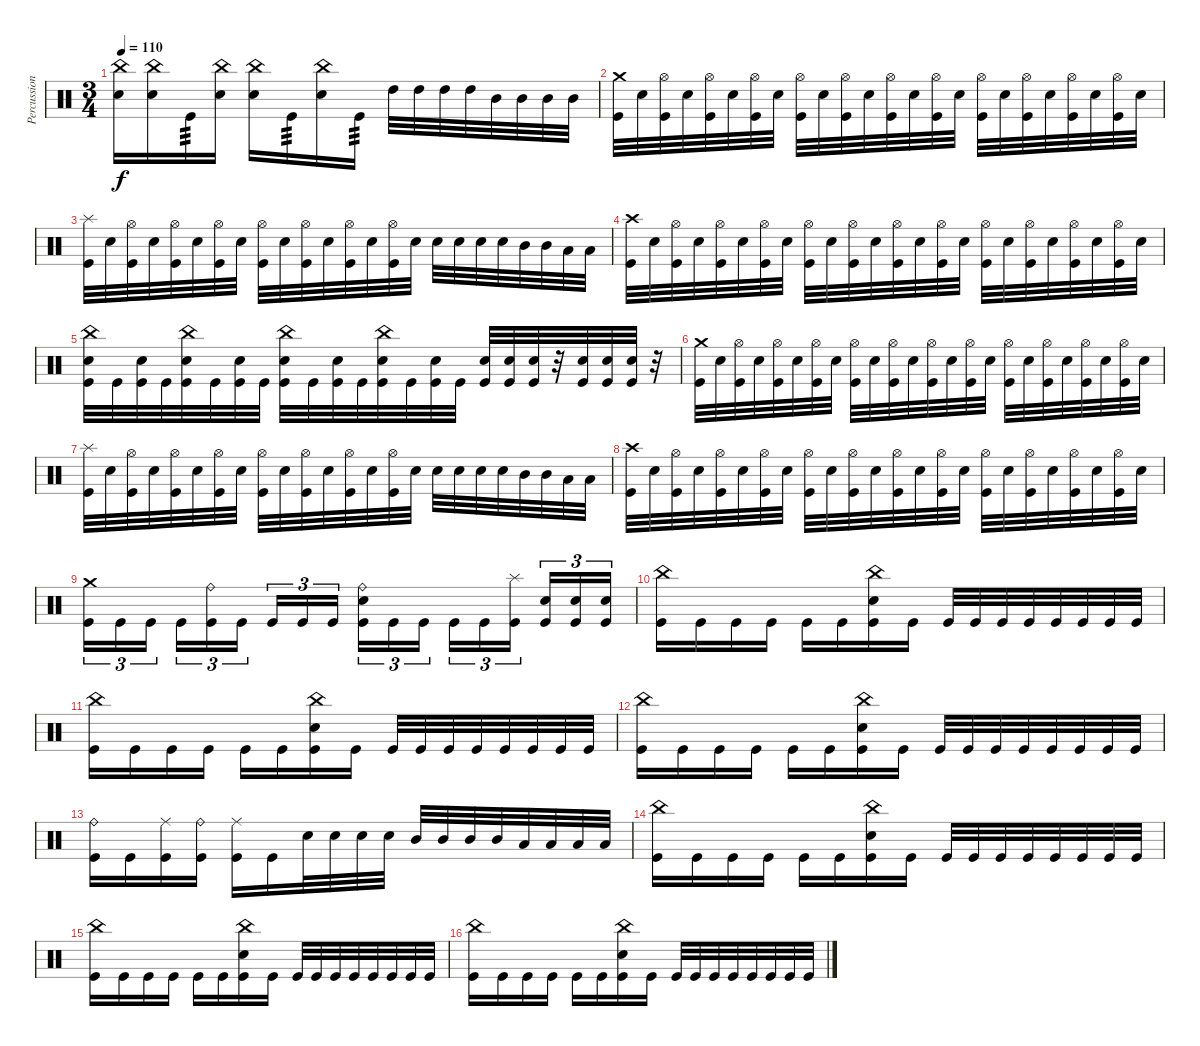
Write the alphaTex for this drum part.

\track ("Percussion" "Percussion") {instrument percussion}
\staff {score}
\articulation defaults
\ts (3 4)
\tempo 110
\clef neutral
\ks c
("China (hit)" "Electric Snare (hit)").16{dy f} ("China (hit)" "Electric Snare (hit)").16 "Kick (hit)".16{tp 3} ("China (hit)" "Electric Snare (hit)").16 ("China (hit)" "Electric Snare (hit)").16 "Kick (hit)".16{tp 3} ("China (hit)" "Electric Snare (hit)").16 "Kick (hit)".16{tp 3} "High Tom (hit)".32 "High Tom (hit)".32 "High Tom (hit)".32 "High Tom (hit)".32 "Mid Tom (hit)".32 "Mid Tom (hit)".32 "Mid Tom (hit)".32 "Mid Tom (hit)".32 |
("Crash medium (hit)" "Kick (hit)").32 "Electric Snare (hit)".32 ("Hi-Hat (open)" "Kick (hit)").32 "Electric Snare (hit)".32 ("Hi-Hat (open)" "Kick (hit)").32 "Electric Snare (hit)".32 ("Hi-Hat (open)" "Kick (hit)").32 "Electric Snare (hit)".32 ("Hi-Hat (open)" "Kick (hit)").32 "Electric Snare (hit)".32 ("Hi-Hat (open)" "Kick (hit)").32 "Electric Snare (hit)".32 ("Hi-Hat (open)" "Kick (hit)").32 "Electric Snare (hit)".32 ("Hi-Hat (open)" "Kick (hit)").32 "Electric Snare (hit)".32 ("Hi-Hat (open)" "Kick (hit)").32 "Electric Snare (hit)".32 ("Hi-Hat (open)" "Kick (hit)").32 "Electric Snare (hit)".32 ("Hi-Hat (open)" "Kick (hit)").32 "Electric Snare (hit)".32 ("Hi-Hat (open)" "Kick (hit)").32 "Electric Snare (hit)".32 |
("Splash (hit)" "Kick (hit)").32 "Electric Snare (hit)".32 ("Hi-Hat (open)" "Kick (hit)").32 "Electric Snare (hit)".32 ("Hi-Hat (open)" "Kick (hit)").32 "Electric Snare (hit)".32 ("Hi-Hat (open)" "Kick (hit)").32 "Electric Snare (hit)".32 ("Hi-Hat (open)" "Kick (hit)").32 "Electric Snare (hit)".32 ("Hi-Hat (open)" "Kick (hit)").32 "Electric Snare (hit)".32 ("Hi-Hat (open)" "Kick (hit)").32 "Electric Snare (hit)".32 ("Hi-Hat (open)" "Kick (hit)").32 "Electric Snare (hit)".32 "Electric Snare (hit)".32 "Electric Snare (hit)".32 "Electric Snare (hit)".32 "Electric Snare (hit)".32 "Mid Tom (hit)".32 "Mid Tom (hit)".32 "Low Tom (hit)".32 "Low Tom (hit)".32 |
("Crash high (hit)" "Kick (hit)").32 "Electric Snare (hit)".32 ("Hi-Hat (open)" "Kick (hit)").32 "Electric Snare (hit)".32 ("Hi-Hat (open)" "Kick (hit)").32 "Electric Snare (hit)".32 ("Hi-Hat (open)" "Kick (hit)").32 "Electric Snare (hit)".32 ("Hi-Hat (open)" "Kick (hit)").32 "Electric Snare (hit)".32 ("Hi-Hat (open)" "Kick (hit)").32 "Electric Snare (hit)".32 ("Hi-Hat (open)" "Kick (hit)").32 "Electric Snare (hit)".32 ("Hi-Hat (open)" "Kick (hit)").32 "Electric Snare (hit)".32 ("Hi-Hat (open)" "Kick (hit)").32 "Electric Snare (hit)".32 ("Hi-Hat (open)" "Kick (hit)").32 "Electric Snare (hit)".32 ("Hi-Hat (open)" "Kick (hit)").32 "Electric Snare (hit)".32 ("Hi-Hat (open)" "Kick (hit)").32 "Electric Snare (hit)".32 |
("China (hit)" "Electric Snare (hit)" "Kick (hit)").32 "Kick (hit)".32 ("Electric Snare (hit)" "Kick (hit)").32 "Kick (hit)".32 ("China (hit)" "Electric Snare (hit)" "Kick (hit)").32 "Kick (hit)".32 ("Electric Snare (hit)" "Kick (hit)").32 "Kick (hit)".32 ("China (hit)" "Electric Snare (hit)" "Kick (hit)").32 "Kick (hit)".32 ("Electric Snare (hit)" "Kick (hit)").32 "Kick (hit)".32 ("China (hit)" "Electric Snare (hit)" "Kick (hit)").32 "Kick (hit)".32 ("Electric Snare (hit)" "Kick (hit)").32 "Kick (hit)".32 ("Electric Snare (hit)" "Kick (hit)").32 ("Electric Snare (hit)" "Kick (hit)").32 ("Electric Snare (hit)" "Kick (hit)").32 r.32 ("Electric Snare (hit)" "Kick (hit)").32 ("Electric Snare (hit)" "Kick (hit)").32 ("Electric Snare (hit)" "Kick (hit)").32 r.32 |
("Crash medium (hit)" "Kick (hit)").32 "Electric Snare (hit)".32 ("Hi-Hat (open)" "Kick (hit)").32 "Electric Snare (hit)".32 ("Hi-Hat (open)" "Kick (hit)").32 "Electric Snare (hit)".32 ("Hi-Hat (open)" "Kick (hit)").32 "Electric Snare (hit)".32 ("Hi-Hat (open)" "Kick (hit)").32 "Electric Snare (hit)".32 ("Hi-Hat (open)" "Kick (hit)").32 "Electric Snare (hit)".32 ("Hi-Hat (open)" "Kick (hit)").32 "Electric Snare (hit)".32 ("Hi-Hat (open)" "Kick (hit)").32 "Electric Snare (hit)".32 ("Hi-Hat (open)" "Kick (hit)").32 "Electric Snare (hit)".32 ("Hi-Hat (open)" "Kick (hit)").32 "Electric Snare (hit)".32 ("Hi-Hat (open)" "Kick (hit)").32 "Electric Snare (hit)".32 ("Hi-Hat (open)" "Kick (hit)").32 "Electric Snare (hit)".32 |
("Splash (hit)" "Kick (hit)").32 "Electric Snare (hit)".32 ("Hi-Hat (open)" "Kick (hit)").32 "Electric Snare (hit)".32 ("Hi-Hat (open)" "Kick (hit)").32 "Electric Snare (hit)".32 ("Hi-Hat (open)" "Kick (hit)").32 "Electric Snare (hit)".32 ("Hi-Hat (open)" "Kick (hit)").32 "Electric Snare (hit)".32 ("Hi-Hat (open)" "Kick (hit)").32 "Electric Snare (hit)".32 ("Hi-Hat (open)" "Kick (hit)").32 "Electric Snare (hit)".32 ("Hi-Hat (open)" "Kick (hit)").32 "Electric Snare (hit)".32 "Electric Snare (hit)".32 "Electric Snare (hit)".32 "Electric Snare (hit)".32 "Electric Snare (hit)".32 "Mid Tom (hit)".32 "Mid Tom (hit)".32 "Low Tom (hit)".32 "Low Tom (hit)".32 |
("Crash high (hit)" "Kick (hit)").32 "Electric Snare (hit)".32 ("Hi-Hat (open)" "Kick (hit)").32 "Electric Snare (hit)".32 ("Hi-Hat (open)" "Kick (hit)").32 "Electric Snare (hit)".32 ("Hi-Hat (open)" "Kick (hit)").32 "Electric Snare (hit)".32 ("Hi-Hat (open)" "Kick (hit)").32 "Electric Snare (hit)".32 ("Hi-Hat (open)" "Kick (hit)").32 "Electric Snare (hit)".32 ("Hi-Hat (open)" "Kick (hit)").32 "Electric Snare (hit)".32 ("Hi-Hat (open)" "Kick (hit)").32 "Electric Snare (hit)".32 ("Hi-Hat (open)" "Kick (hit)").32 "Electric Snare (hit)".32 ("Hi-Hat (open)" "Kick (hit)").32 "Electric Snare (hit)".32 ("Hi-Hat (open)" "Kick (hit)").32 "Electric Snare (hit)".32 ("Hi-Hat (open)" "Kick (hit)").32 "Electric Snare (hit)".32 |
("Crash medium (hit)" "Kick (hit)").16{tu (3 2)} "Kick (hit)".16{tu (3 2)} "Kick (hit)".16{tu (3 2) beam splitsecondary} "Kick (hit)".16{tu (3 2)} ("Ride (bell)" "Kick (hit)").16{tu (3 2)} "Kick (hit)".16{tu (3 2)} "Kick (hit)".16{tu (3 2)} "Kick (hit)".16{tu (3 2)} "Kick (hit)".16{tu (3 2) beam splitsecondary} ("Ride (bell)" "Electric Snare (hit)" "Kick (hit)").16{tu (3 2)} "Kick (hit)".16{tu (3 2)} "Kick (hit)".16{tu (3 2)} "Kick (hit)".16{tu (3 2)} "Kick (hit)".16{tu (3 2)} ("Splash (hit)" "Kick (hit)").16{tu (3 2) beam splitsecondary} ("Electric Snare (hit)" "Kick (hit)").16{tu (3 2)} ("Electric Snare (hit)" "Kick (hit)").16{tu (3 2)} ("Electric Snare (hit)" "Kick (hit)").16{tu (3 2)} |
("China (hit)" "Kick (hit)").16 "Kick (hit)".16 "Kick (hit)".16 "Kick (hit)".16 "Kick (hit)".16 "Kick (hit)".16 ("China (hit)" "Electric Snare (hit)" "Kick (hit)").16 "Kick (hit)".16 "Kick (hit)".32 "Kick (hit)".32 "Kick (hit)".32 "Kick (hit)".32 "Kick (hit)".32 "Kick (hit)".32 "Kick (hit)".32 "Kick (hit)".32 |
("China (hit)" "Kick (hit)").16 "Kick (hit)".16 "Kick (hit)".16 "Kick (hit)".16 "Kick (hit)".16 "Kick (hit)".16 ("China (hit)" "Electric Snare (hit)" "Kick (hit)").16 "Kick (hit)".16 "Kick (hit)".32 "Kick (hit)".32 "Kick (hit)".32 "Kick (hit)".32 "Kick (hit)".32 "Kick (hit)".32 "Kick (hit)".32 "Kick (hit)".32 |
("China (hit)" "Kick (hit)").16 "Kick (hit)".16 "Kick (hit)".16 "Kick (hit)".16 "Kick (hit)".16 "Kick (hit)".16 ("China (hit)" "Electric Snare (hit)" "Kick (hit)").16 "Kick (hit)".16 "Kick (hit)".32 "Kick (hit)".32 "Kick (hit)".32 "Kick (hit)".32 "Kick (hit)".32 "Kick (hit)".32 "Kick (hit)".32 "Kick (hit)".32 |
("Ride (bell)" "Kick (hit)").16 "Kick (hit)".16 ("Ride (middle)" "Kick (hit)").16 ("Ride (bell)" "Kick (hit)").16 ("Ride (middle)" "Kick (hit)").16 "Kick (hit)".16 "Electric Snare (hit)".32 "Electric Snare (hit)".32 "Electric Snare (hit)".32 "Electric Snare (hit)".32 "Mid Tom (hit)".32 "Mid Tom (hit)".32 "Mid Tom (hit)".32 "Mid Tom (hit)".32 "Low Tom (hit)".32 "Low Tom (hit)".32 "Low Tom (hit)".32 "Low Tom (hit)".32 |
("China (hit)" "Kick (hit)").16 "Kick (hit)".16 "Kick (hit)".16 "Kick (hit)".16 "Kick (hit)".16 "Kick (hit)".16 ("China (hit)" "Electric Snare (hit)" "Kick (hit)").16 "Kick (hit)".16 "Kick (hit)".32 "Kick (hit)".32 "Kick (hit)".32 "Kick (hit)".32 "Kick (hit)".32 "Kick (hit)".32 "Kick (hit)".32 "Kick (hit)".32 |
("China (hit)" "Kick (hit)").16 "Kick (hit)".16 "Kick (hit)".16 "Kick (hit)".16 "Kick (hit)".16 "Kick (hit)".16 ("China (hit)" "Electric Snare (hit)" "Kick (hit)").16 "Kick (hit)".16 "Kick (hit)".32 "Kick (hit)".32 "Kick (hit)".32 "Kick (hit)".32 "Kick (hit)".32 "Kick (hit)".32 "Kick (hit)".32 "Kick (hit)".32 |
("China (hit)" "Kick (hit)").16 "Kick (hit)".16 "Kick (hit)".16 "Kick (hit)".16 "Kick (hit)".16 "Kick (hit)".16 ("China (hit)" "Electric Snare (hit)" "Kick (hit)").16 "Kick (hit)".16 "Kick (hit)".32 "Kick (hit)".32 "Kick (hit)".32 "Kick (hit)".32 "Kick (hit)".32 "Kick (hit)".32 "Kick (hit)".32 "Kick (hit)".32
